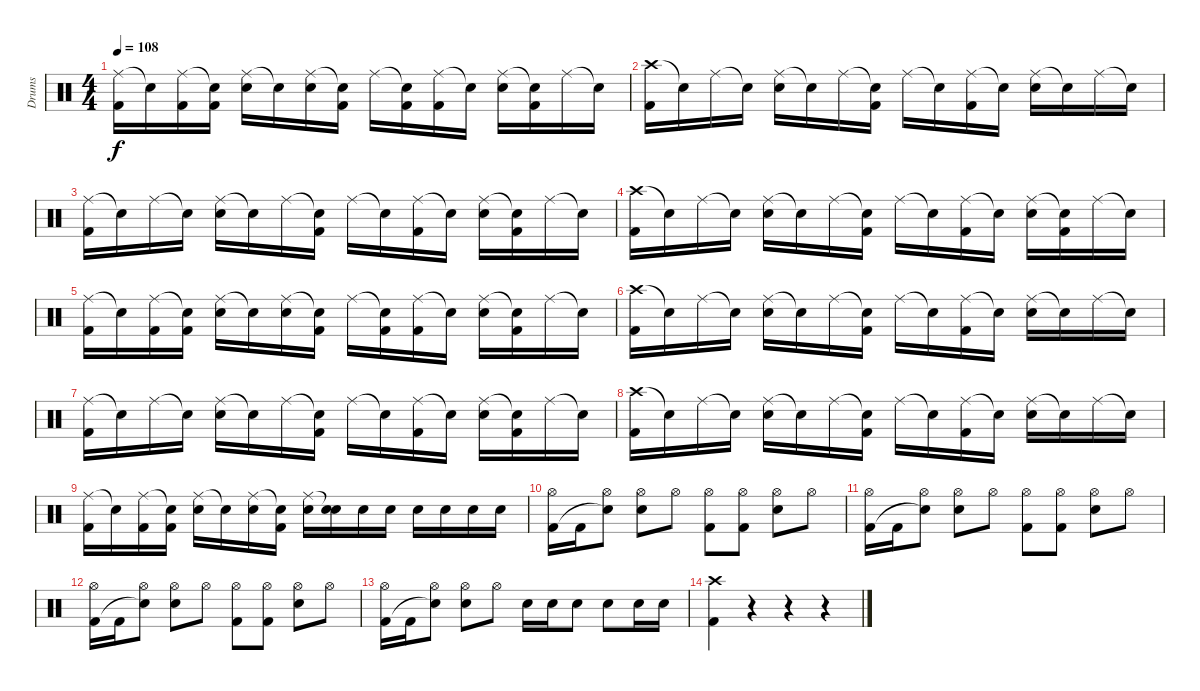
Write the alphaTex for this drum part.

\track ("Drums" "Drums") {instrument percussion}
\staff {score}
\articulation defaults
\ts (4 4)
\tempo 108
\clef neutral
\ks c
("Ride (middle)" "Kick (hit) 2").16{dy f} "Snare (hit)"{t}.16 ("Ride (middle)" "Kick (hit) 2").16 ("Snare (hit)"{t} "Kick (hit) 2").16 ("Ride (middle)" "Electric Snare (hit)").16 "Snare (hit)"{t}.16 ("Ride (middle)" "Electric Snare (hit)").16 ("Snare (hit)"{t} "Kick (hit) 2").16 "Ride (middle)".16 ("Snare (hit)"{t} "Kick (hit) 2").16 ("Ride (middle)" "Kick (hit) 2").16 "Snare (hit)"{t}.16 ("Ride (middle)" "Electric Snare (hit)").16 ("Snare (hit)"{t} "Kick (hit) 2").16 "Ride (middle)".16 "Snare (hit)"{t}.16 |
("Crash high (hit)" "Kick (hit) 2").16 "Snare (hit)"{t}.16 "Ride (middle)".16 "Snare (hit)"{t}.16 ("Ride (middle)" "Electric Snare (hit)").16 "Snare (hit)"{t}.16 "Ride (middle)".16 ("Snare (hit)"{t} "Kick (hit) 2").16 "Ride (middle)".16 "Snare (hit)"{t}.16 ("Ride (middle)" "Kick (hit) 2").16 "Snare (hit)"{t}.16 ("Ride (middle)" "Electric Snare (hit)").16 "Snare (hit)"{t}.16 "Ride (middle)".16 "Snare (hit)"{t}.16 |
("Ride (middle)" "Kick (hit) 2").16 "Snare (hit)"{t}.16 "Ride (middle)".16 "Snare (hit)"{t}.16 ("Ride (middle)" "Electric Snare (hit)").16 "Snare (hit)"{t}.16 "Ride (middle)".16 ("Snare (hit)"{t} "Kick (hit) 2").16 "Ride (middle)".16 "Snare (hit)"{t}.16 ("Ride (middle)" "Kick (hit) 2").16 "Snare (hit)"{t}.16 ("Ride (middle)" "Electric Snare (hit)").16 ("Snare (hit)"{t} "Kick (hit) 2").16 "Ride (middle)".16 "Snare (hit)"{t}.16 |
("Crash high (hit)" "Kick (hit) 2").16 "Snare (hit)"{t}.16 "Ride (middle)".16 "Snare (hit)"{t}.16 ("Ride (middle)" "Electric Snare (hit)").16 "Snare (hit)"{t}.16 "Ride (middle)".16 ("Snare (hit)"{t} "Kick (hit) 2").16 "Ride (middle)".16 "Snare (hit)"{t}.16 ("Ride (middle)" "Kick (hit) 2").16 "Snare (hit)"{t}.16 ("Ride (middle)" "Electric Snare (hit)").16 ("Snare (hit)"{t} "Kick (hit) 2").16 "Ride (middle)".16 "Snare (hit)"{t}.16 |
("Ride (middle)" "Kick (hit) 2").16 "Snare (hit)"{t}.16 ("Ride (middle)" "Kick (hit) 2").16 ("Snare (hit)"{t} "Kick (hit) 2").16 ("Ride (middle)" "Electric Snare (hit)").16 "Snare (hit)"{t}.16 ("Ride (middle)" "Electric Snare (hit)").16 ("Snare (hit)"{t} "Kick (hit) 2").16 "Ride (middle)".16 ("Snare (hit)"{t} "Kick (hit) 2").16 ("Ride (middle)" "Kick (hit) 2").16 "Snare (hit)"{t}.16 ("Ride (middle)" "Electric Snare (hit)").16 ("Snare (hit)"{t} "Kick (hit) 2").16 "Ride (middle)".16 "Snare (hit)"{t}.16 |
("Crash high (hit)" "Kick (hit) 2").16 "Snare (hit)"{t}.16 "Ride (middle)".16 "Snare (hit)"{t}.16 ("Ride (middle)" "Electric Snare (hit)").16 "Snare (hit)"{t}.16 "Ride (middle)".16 ("Snare (hit)"{t} "Kick (hit) 2").16 "Ride (middle)".16 "Snare (hit)"{t}.16 ("Ride (middle)" "Kick (hit) 2").16 "Snare (hit)"{t}.16 ("Ride (middle)" "Electric Snare (hit)").16 "Snare (hit)"{t}.16 "Ride (middle)".16 "Snare (hit)"{t}.16 |
("Ride (middle)" "Kick (hit) 2").16 "Snare (hit)"{t}.16 "Ride (middle)".16 "Snare (hit)"{t}.16 ("Ride (middle)" "Electric Snare (hit)").16 "Snare (hit)"{t}.16 "Ride (middle)".16 ("Snare (hit)"{t} "Kick (hit) 2").16 "Ride (middle)".16 "Snare (hit)"{t}.16 ("Ride (middle)" "Kick (hit) 2").16 "Snare (hit)"{t}.16 ("Ride (middle)" "Electric Snare (hit)").16 ("Snare (hit)"{t} "Kick (hit) 2").16 "Ride (middle)".16 "Snare (hit)"{t}.16 |
("Crash high (hit)" "Kick (hit) 2").16 "Snare (hit)"{t}.16 "Ride (middle)".16 "Snare (hit)"{t}.16 ("Ride (middle)" "Electric Snare (hit)").16 "Snare (hit)"{t}.16 "Ride (middle)".16 ("Snare (hit)"{t} "Kick (hit) 2").16 "Ride (middle)".16 "Snare (hit)"{t}.16 ("Ride (middle)" "Kick (hit) 2").16 "Snare (hit)"{t}.16 ("Ride (middle)" "Electric Snare (hit)").16 "Snare (hit)"{t}.16 "Ride (middle)".16 "Snare (hit)"{t}.16 |
("Ride (middle)" "Kick (hit) 2").16 "Snare (hit)"{t}.16 ("Ride (middle)" "Kick (hit) 2").16 ("Snare (hit)"{t} "Kick (hit) 2").16 ("Ride (middle)" "Electric Snare (hit)").16 "Snare (hit)"{t}.16 ("Ride (middle)" "Electric Snare (hit)").16 ("Snare (hit)"{t} "Kick (hit) 2").16 ("Ride (middle)" "Electric Snare (hit)").16 ("Snare (hit)"{t} "Electric Snare (hit)").16 "Electric Snare (hit)".16 "Electric Snare (hit)".16 "Electric Snare (hit)".16 "Electric Snare (hit)".16 "Electric Snare (hit)".16 "Electric Snare (hit)".16 |
("Hi-Hat (open)" "Kick (hit) 2").16 "Kick (hit) 2".16 ("Hi-Hat (open)" "Snare (hit)"{t}).8 ("Hi-Hat (open)" "Electric Snare (hit)").8 "Hi-Hat (open)".8 ("Hi-Hat (open)" "Kick (hit) 2").8 ("Hi-Hat (open)" "Kick (hit) 2").8 ("Hi-Hat (open)" "Electric Snare (hit)").8 "Hi-Hat (open)".8 |
("Hi-Hat (open)" "Kick (hit) 2").16 "Kick (hit) 2".16 ("Hi-Hat (open)" "Snare (hit)"{t}).8 ("Hi-Hat (open)" "Electric Snare (hit)").8 "Hi-Hat (open)".8 ("Hi-Hat (open)" "Kick (hit) 2").8 ("Hi-Hat (open)" "Kick (hit) 2").8 ("Hi-Hat (open)" "Electric Snare (hit)").8 "Hi-Hat (open)".8 |
("Hi-Hat (open)" "Kick (hit) 2").16 "Kick (hit) 2".16 ("Hi-Hat (open)" "Snare (hit)"{t}).8 ("Hi-Hat (open)" "Electric Snare (hit)").8 "Hi-Hat (open)".8 ("Hi-Hat (open)" "Kick (hit) 2").8 ("Hi-Hat (open)" "Kick (hit) 2").8 ("Hi-Hat (open)" "Electric Snare (hit)").8 "Hi-Hat (open)".8 |
("Hi-Hat (open)" "Kick (hit) 2").16 "Kick (hit) 2".16 ("Hi-Hat (open)" "Snare (hit)"{t}).8 ("Hi-Hat (open)" "Electric Snare (hit)").8 "Hi-Hat (open)".8 "Electric Snare (hit)".16 "Electric Snare (hit)".16 "Electric Snare (hit)".8 "Electric Snare (hit)".8 "Electric Snare (hit)".16 "Electric Snare (hit)".16 |
("Crash high (hit)" "Kick (hit) 2").4 r.4 r.4 r.4
